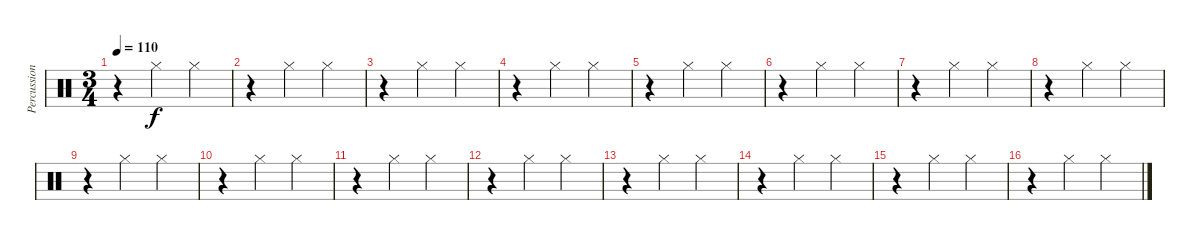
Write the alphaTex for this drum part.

\track ("Percussion" "Percussion") {instrument percussion}
\staff {score}
\articulation defaults
\ts (3 4)
\tempo 110
\clef neutral
\ks c
r.4{dy f} "Hi-Hat (closed)".4 "Hi-Hat (closed)".4 |
r.4 "Hi-Hat (closed)".4 "Hi-Hat (closed)".4 |
r.4 "Hi-Hat (closed)".4 "Hi-Hat (closed)".4 |
r.4 "Hi-Hat (closed)".4 "Hi-Hat (closed)".4 |
r.4 "Hi-Hat (closed)".4 "Hi-Hat (closed)".4 |
r.4 "Hi-Hat (closed)".4 "Hi-Hat (closed)".4 |
r.4 "Hi-Hat (closed)".4 "Hi-Hat (closed)".4 |
r.4 "Hi-Hat (closed)".4 "Hi-Hat (closed)".4 |
r.4 "Hi-Hat (closed)".4 "Hi-Hat (closed)".4 |
r.4 "Hi-Hat (closed)".4 "Hi-Hat (closed)".4 |
r.4 "Hi-Hat (closed)".4 "Hi-Hat (closed)".4 |
r.4 "Hi-Hat (closed)".4 "Hi-Hat (closed)".4 |
r.4 "Hi-Hat (closed)".4 "Hi-Hat (closed)".4 |
r.4 "Hi-Hat (closed)".4 "Hi-Hat (closed)".4 |
r.4 "Hi-Hat (closed)".4 "Hi-Hat (closed)".4 |
r.4 "Hi-Hat (closed)".4 "Hi-Hat (closed)".4
